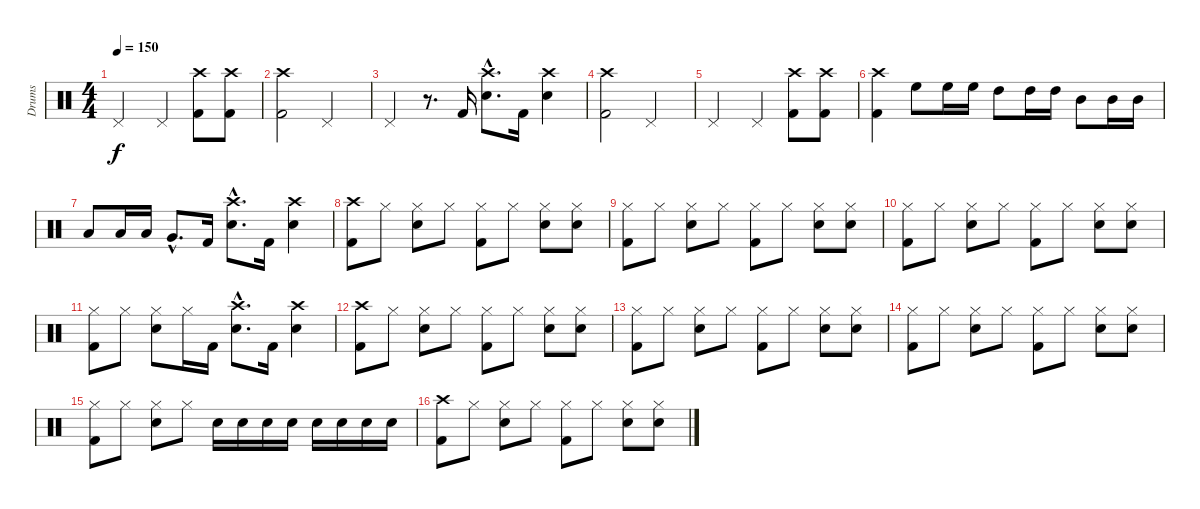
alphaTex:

\track ("Drums" "Drums") {instrument percussion}
\staff {score}
\articulation defaults
\ts (4 4)
\tempo 150
\clef neutral
\ks c "Pedal Hi-Hat (hit)".2{dy f} "Pedal Hi-Hat (hit)".4
("Crash high (hit)" "Kick (hit) 2").8 ("Crash high (hit)" "Kick (hit) 2").8 |
("Crash high (hit)" "Kick (hit) 2").2 "Pedal Hi-Hat (hit)".2 |
"Pedal Hi-Hat (hit)".4 r.8{d} "Kick (hit) 2".16 ("Crash high (hit)"{hac} "Electric Snare (hit)"{hac}).8{d} "Kick (hit) 2".16 ("Crash high (hit)" "Electric Snare (hit)").4 |
("Crash high (hit)" "Kick (hit) 2").2 "Pedal Hi-Hat (hit)".2 |
"Pedal Hi-Hat (hit)".2 "Pedal Hi-Hat (hit)".4 ("Crash high (hit)" "Kick (hit) 2").8 ("Crash high (hit)" "Kick (hit) 2").8 |
("Crash high (hit)" "Kick (hit) 2").4 "High Floor Tom (hit)".8 "High Floor Tom (hit)".16 "High Floor Tom (hit)".16 "High Tom (hit)".8 "High Tom (hit)".16 "High Tom (hit)".16 "Mid Tom (hit)".8 "Mid Tom (hit)".16 "Mid Tom (hit)".16 |
"Low Tom (hit)".8 "Low Tom (hit)".16 "Low Tom (hit)".16 "Very Low Tom (hit)"{hac}.8{d} "Kick (hit) 2".16 ("Crash high (hit)"{hac} "Electric Snare (hit)"{hac}).8{d} "Kick (hit) 2".16 ("Crash high (hit)" "Electric Snare (hit)").4 |
("Crash high (hit)" "Kick (hit) 2").8 "Hi-Hat (closed)".8 ("Hi-Hat (closed)" "Electric Snare (hit)").8 "Hi-Hat (closed)".8 ("Hi-Hat (closed)" "Kick (hit) 2").8 "Hi-Hat (closed)".8 ("Hi-Hat (closed)" "Electric Snare (hit)").8 ("Hi-Hat (closed)" "Electric Snare (hit)").8 |
("Hi-Hat (closed)" "Kick (hit) 2").8 "Hi-Hat (closed)".8 ("Hi-Hat (closed)" "Electric Snare (hit)").8 "Hi-Hat (closed)".8 ("Hi-Hat (closed)" "Kick (hit) 2").8 "Hi-Hat (closed)".8 ("Hi-Hat (closed)" "Electric Snare (hit)").8 ("Hi-Hat (closed)" "Electric Snare (hit)").8 |
("Hi-Hat (closed)" "Kick (hit) 2").8 "Hi-Hat (closed)".8 ("Hi-Hat (closed)" "Electric Snare (hit)").8 "Hi-Hat (closed)".8 ("Hi-Hat (closed)" "Kick (hit) 2").8 "Hi-Hat (closed)".8 ("Hi-Hat (closed)" "Electric Snare (hit)").8 ("Hi-Hat (closed)" "Electric Snare (hit)").8 |
("Hi-Hat (closed)" "Kick (hit) 2").8 "Hi-Hat (closed)".8 ("Hi-Hat (closed)" "Electric Snare (hit)").8 "Hi-Hat (closed)".16 "Kick (hit) 2".16 ("Crash high (hit)"{hac} "Electric Snare (hit)"{hac}).8{d} "Kick (hit) 2".16 ("Crash high (hit)" "Electric Snare (hit)").4 |
("Crash high (hit)" "Kick (hit) 2").8 "Hi-Hat (closed)".8 ("Hi-Hat (closed)" "Electric Snare (hit)").8 "Hi-Hat (closed)".8 ("Hi-Hat (closed)" "Kick (hit) 2").8 "Hi-Hat (closed)".8 ("Hi-Hat (closed)" "Electric Snare (hit)").8 ("Hi-Hat (closed)" "Electric Snare (hit)").8 |
("Hi-Hat (closed)" "Kick (hit) 2").8 "Hi-Hat (closed)".8 ("Hi-Hat (closed)" "Electric Snare (hit)").8 "Hi-Hat (closed)".8 ("Hi-Hat (closed)" "Kick (hit) 2").8 "Hi-Hat (closed)".8 ("Hi-Hat (closed)" "Electric Snare (hit)").8 ("Hi-Hat (closed)" "Electric Snare (hit)").8 |
("Hi-Hat (closed)" "Kick (hit) 2").8 "Hi-Hat (closed)".8 ("Hi-Hat (closed)" "Electric Snare (hit)").8 "Hi-Hat (closed)".8 ("Hi-Hat (closed)" "Kick (hit) 2").8 "Hi-Hat (closed)".8 ("Hi-Hat (closed)" "Electric Snare (hit)").8 ("Hi-Hat (closed)" "Electric Snare (hit)").8 |
("Hi-Hat (closed)" "Kick (hit) 2").8 "Hi-Hat (closed)".8 ("Hi-Hat (closed)" "Electric Snare (hit)").8 "Hi-Hat (closed)".8 "Electric Snare (hit)".16 "Electric Snare (hit)".16 "Electric Snare (hit)".16 "Electric Snare (hit)".16 "Electric Snare (hit)".16 "Electric Snare (hit)".16 "Electric Snare (hit)".16 "Electric Snare (hit)".16 |
("Crash high (hit)" "Kick (hit) 2").8 "Hi-Hat (closed)".8 ("Hi-Hat (closed)" "Electric Snare (hit)").8 "Hi-Hat (closed)".8 ("Hi-Hat (closed)" "Kick (hit) 2").8 "Hi-Hat (closed)".8 ("Hi-Hat (closed)" "Electric Snare (hit)").8 ("Hi-Hat (closed)" "Electric Snare (hit)").8
